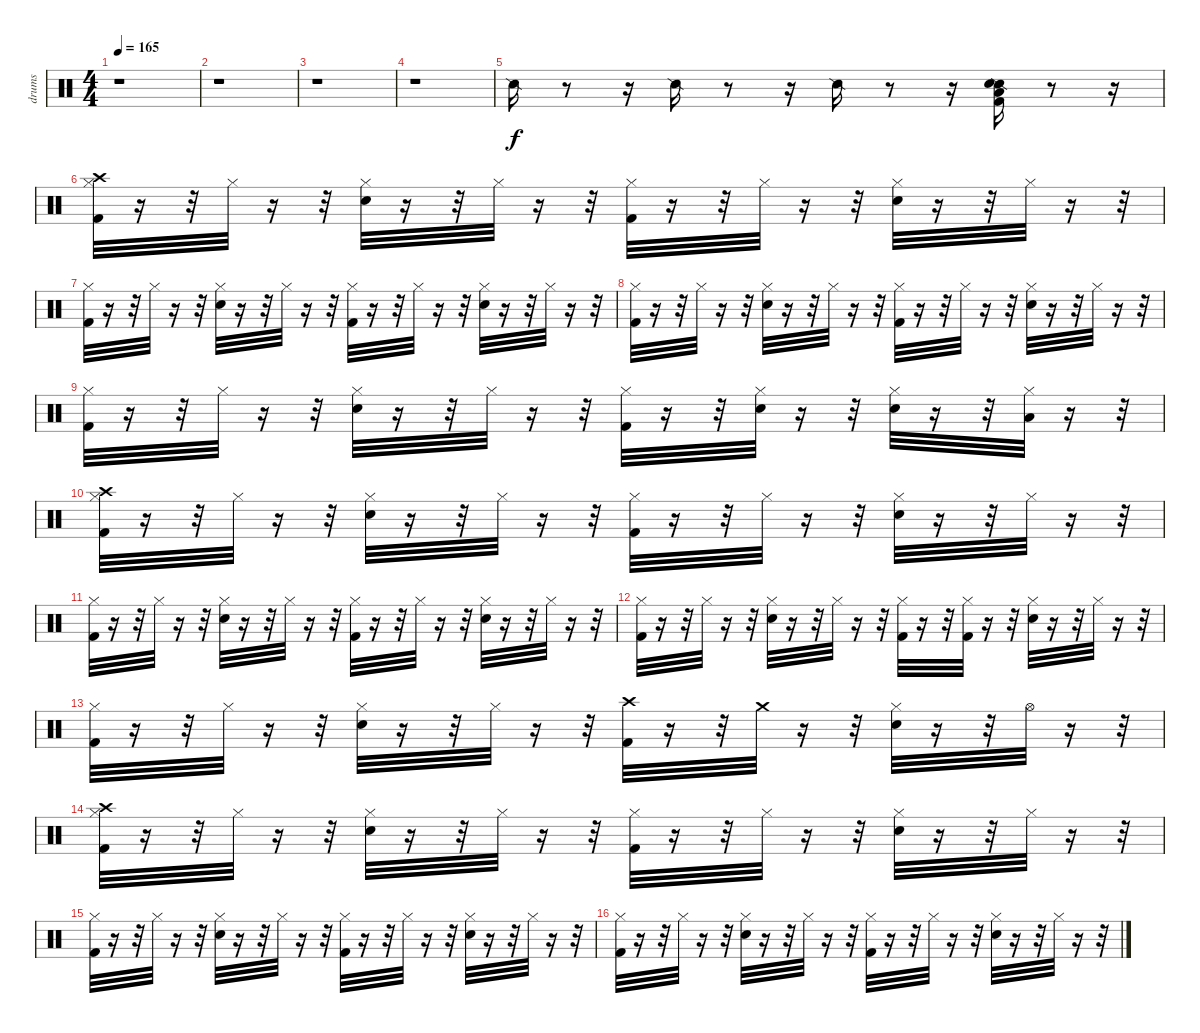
\track ("drums" "drums") {instrument percussion}
\staff {score}
\articulation defaults
\ts (4 4)
\tempo 165
\clef neutral
\ks c
r.1{dy f} |
r.1 |
r.1 |
r.1 |
"Snare (side stick) 2".16 r.8 r.16 "Snare (side stick) 2".16 r.8 r.16 "Snare (side stick) 2".16 r.8 r.16 ("Snare (side stick) 2" "Low Tom (hit)" "Kick (hit) 2" "Snare (hit) 2").16 r.8 r.16 |
("Crash high (hit)" "Hi-Hat (closed)" "Kick (hit) 2").32 r.16 r.32 "Hi-Hat (closed)".32 r.16 r.32 ("Hi-Hat (closed)" "Electric Snare (hit)").32 r.16 r.32 "Hi-Hat (closed)".32 r.16 r.32 ("Hi-Hat (closed)" "Kick (hit) 2").32 r.16 r.32 "Hi-Hat (closed)".32 r.16 r.32 ("Hi-Hat (closed)" "Electric Snare (hit)").32 r.16 r.32 "Hi-Hat (closed)".32 r.16 r.32 |
("Hi-Hat (closed)" "Kick (hit) 2").32 r.16 r.32 "Hi-Hat (closed)".32 r.16 r.32 ("Hi-Hat (closed)" "Electric Snare (hit)").32 r.16 r.32 "Hi-Hat (closed)".32 r.16 r.32 ("Hi-Hat (closed)" "Kick (hit) 2").32 r.16 r.32 "Hi-Hat (closed)".32 r.16 r.32 ("Hi-Hat (closed)" "Electric Snare (hit)").32 r.16 r.32 "Hi-Hat (closed)".32 r.16 r.32 |
("Hi-Hat (closed)" "Kick (hit) 2").32 r.16 r.32 "Hi-Hat (closed)".32 r.16 r.32 ("Hi-Hat (closed)" "Electric Snare (hit)").32 r.16 r.32 "Hi-Hat (closed)".32 r.16 r.32 ("Hi-Hat (closed)" "Kick (hit) 2").32 r.16 r.32 "Hi-Hat (closed)".32 r.16 r.32 ("Hi-Hat (closed)" "Electric Snare (hit)").32 r.16 r.32 "Hi-Hat (closed)".32 r.16 r.32 |
("Hi-Hat (closed)" "Kick (hit) 2").32 r.16 r.32 "Hi-Hat (closed)".32 r.16 r.32 ("Hi-Hat (closed)" "Electric Snare (hit)").32 r.16 r.32 "Hi-Hat (closed)".32 r.16 r.32 ("Hi-Hat (closed)" "Kick (hit) 2").32 r.16 r.32 ("Electric Snare (hit)" "Hi-Hat (closed)").32 r.16 r.32 ("Hi-Hat (closed)" "Electric Snare (hit)").32 r.16 r.32 ("Low Tom (hit)" "Hi-Hat (closed)").32 r.16 r.32 |
("Kick (hit) 2" "Hi-Hat (closed)" "Crash high (hit)").32 r.16 r.32 "Hi-Hat (closed)".32 r.16 r.32 ("Hi-Hat (closed)" "Electric Snare (hit)").32 r.16 r.32 "Hi-Hat (closed)".32 r.16 r.32 ("Hi-Hat (closed)" "Kick (hit) 2").32 r.16 r.32 "Hi-Hat (closed)".32 r.16 r.32 ("Hi-Hat (closed)" "Electric Snare (hit)").32 r.16 r.32 "Hi-Hat (closed)".32 r.16 r.32 |
("Hi-Hat (closed)" "Kick (hit) 2").32 r.16 r.32 "Hi-Hat (closed)".32 r.16 r.32 ("Hi-Hat (closed)" "Electric Snare (hit)").32 r.16 r.32 "Hi-Hat (closed)".32 r.16 r.32 ("Hi-Hat (closed)" "Kick (hit) 2").32 r.16 r.32 "Hi-Hat (closed)".32 r.16 r.32 ("Hi-Hat (closed)" "Electric Snare (hit)").32 r.16 r.32 "Hi-Hat (closed)".32 r.16 r.32 |
("Hi-Hat (closed)" "Kick (hit) 2").32 r.16 r.32 "Hi-Hat (closed)".32 r.16 r.32 ("Hi-Hat (closed)" "Electric Snare (hit)").32 r.16 r.32 "Hi-Hat (closed)".32 r.16 r.32 ("Hi-Hat (closed)" "Kick (hit) 2").32 r.16 r.32 ("Hi-Hat (closed)" "Kick (hit) 2").32 r.16 r.32 ("Hi-Hat (closed)" "Electric Snare (hit)").32 r.16 r.32 "Hi-Hat (closed)".32 r.16 r.32 |
("Hi-Hat (closed)" "Kick (hit) 2").32 r.16 r.32 "Hi-Hat (closed)".32 r.16 r.32 ("Hi-Hat (closed)" "Electric Snare (hit)").32 r.16 r.32 "Hi-Hat (closed)".32 r.16 r.32 ("Crash high (hit)" "Kick (hit) 2").32 r.16 r.32 "Crash medium (hit)".32 r.16 r.32 ("Hi-Hat (closed)" "Electric Snare (hit)").32 r.16 r.32 "Hi-Hat (open)".32 r.16 r.32 |
("Crash high (hit)" "Hi-Hat (closed)" "Kick (hit) 2").32 r.16 r.32 "Hi-Hat (closed)".32 r.16 r.32 ("Hi-Hat (closed)" "Electric Snare (hit)").32 r.16 r.32 "Hi-Hat (closed)".32 r.16 r.32 ("Hi-Hat (closed)" "Kick (hit) 2").32 r.16 r.32 "Hi-Hat (closed)".32 r.16 r.32 ("Hi-Hat (closed)" "Electric Snare (hit)").32 r.16 r.32 "Hi-Hat (closed)".32 r.16 r.32 |
("Hi-Hat (closed)" "Kick (hit) 2").32 r.16 r.32 "Hi-Hat (closed)".32 r.16 r.32 ("Hi-Hat (closed)" "Electric Snare (hit)").32 r.16 r.32 "Hi-Hat (closed)".32 r.16 r.32 ("Hi-Hat (closed)" "Kick (hit) 2").32 r.16 r.32 "Hi-Hat (closed)".32 r.16 r.32 ("Hi-Hat (closed)" "Electric Snare (hit)").32 r.16 r.32 "Hi-Hat (closed)".32 r.16 r.32 |
("Hi-Hat (closed)" "Kick (hit) 2").32 r.16 r.32 "Hi-Hat (closed)".32 r.16 r.32 ("Hi-Hat (closed)" "Electric Snare (hit)").32 r.16 r.32 "Hi-Hat (closed)".32 r.16 r.32 ("Hi-Hat (closed)" "Kick (hit) 2").32 r.16 r.32 "Hi-Hat (closed)".32 r.16 r.32 ("Hi-Hat (closed)" "Electric Snare (hit)").32 r.16 r.32 "Hi-Hat (closed)".32 r.16 r.32
